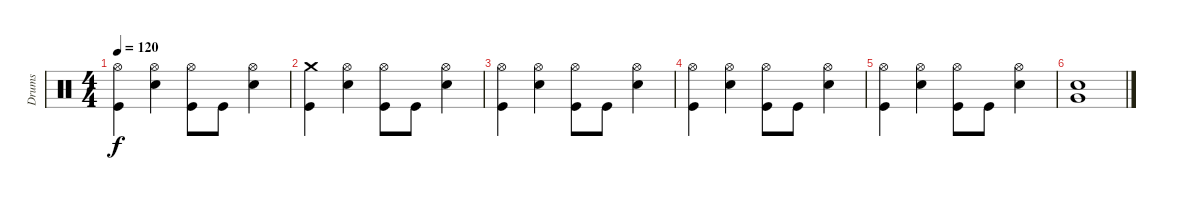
\track ("Drums" "Drums") {instrument percussion}
\staff {score}
\articulation defaults
\ts (4 4)
\tempo 120
\clef neutral
\ks c
("Hi-Hat (open)" "Kick (hit)").4{dy f} ("Hi-Hat (open)" "Snare (hit) 2").4 ("Hi-Hat (open)" "Kick (hit)").8 "Kick (hit)".8 ("Hi-Hat (open)" "Snare (hit) 2").4 |
("Crash medium (hit)" "Kick (hit)").4 ("Hi-Hat (open)" "Snare (hit) 2").4 ("Hi-Hat (open)" "Kick (hit)").8 "Kick (hit)".8 ("Hi-Hat (open)" "Snare (hit) 2").4 |
("Hi-Hat (open)" "Kick (hit)").4 ("Hi-Hat (open)" "Snare (hit) 2").4 ("Hi-Hat (open)" "Kick (hit)").8 "Kick (hit)".8 ("Hi-Hat (open)" "Snare (hit) 2").4 |
("Hi-Hat (open)" "Kick (hit)").4 ("Hi-Hat (open)" "Snare (hit) 2").4 ("Hi-Hat (open)" "Kick (hit)").8 "Kick (hit)".8 ("Hi-Hat (open)" "Snare (hit) 2").4 |
("Hi-Hat (open)" "Kick (hit)").4 ("Hi-Hat (open)" "Snare (hit) 2").4 ("Hi-Hat (open)" "Kick (hit)").8 "Kick (hit)".8 ("Hi-Hat (open)" "Snare (hit) 2").4 |
("Very Low Tom (hit)" "Snare (hit) 2").1
